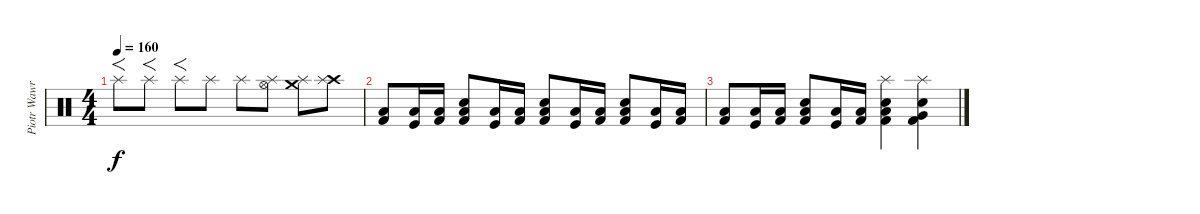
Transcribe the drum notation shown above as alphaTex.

\track ("Piotr Wawrzeniuk" "Piotr Wawr") {instrument percussion}
\staff {score}
\articulation defaults
\ts (4 4)
\tempo 160
\clef neutral
\ks c "Splash (hit)".8{f dy f} "Splash (hit)".8{f} "Splash (hit)".8{f} "Splash (hit)".8 "Splash (hit)".8
("Hi-Hat (open)" "Splash (hit)").8 ("Crash medium (hit)" "Splash (hit)").8 ("Crash high (hit)" "Splash (hit)").8 |
("Low Tom (hit)" "Kick (hit) 2").8 ("Low Tom (hit)" "Kick (hit)").16 ("Low Tom (hit)" "Kick (hit) 2").16 ("Snare (hit) 2" "Low Tom (hit)" "Kick (hit) 2").8 ("Low Tom (hit)" "Kick (hit)").16 ("Low Tom (hit)" "Kick (hit) 2").16 ("Snare (hit) 2" "Low Tom (hit)" "Kick (hit) 2").8 ("Low Tom (hit)" "Kick (hit)").16 ("Low Tom (hit)" "Kick (hit) 2").16 ("Snare (hit) 2" "Low Tom (hit)" "Kick (hit) 2").8 ("Low Tom (hit)" "Kick (hit)").16 ("Low Tom (hit)" "Kick (hit) 2").16 |
("Low Tom (hit)" "Kick (hit) 2").8 ("Low Tom (hit)" "Kick (hit)").16 ("Low Tom (hit)" "Kick (hit) 2").16 ("Snare (hit) 2" "Low Tom (hit)" "Kick (hit) 2").8 ("Low Tom (hit)" "Kick (hit)").16 ("Low Tom (hit)" "Kick (hit) 2").16 ("Splash (hit)" "Low Tom (hit)" "Electric Snare (hit)" "Kick (hit) 2").4 ("Splash (hit)" "Very Low Tom (hit)" "Electric Snare (hit)" "Kick (hit) 2").4
